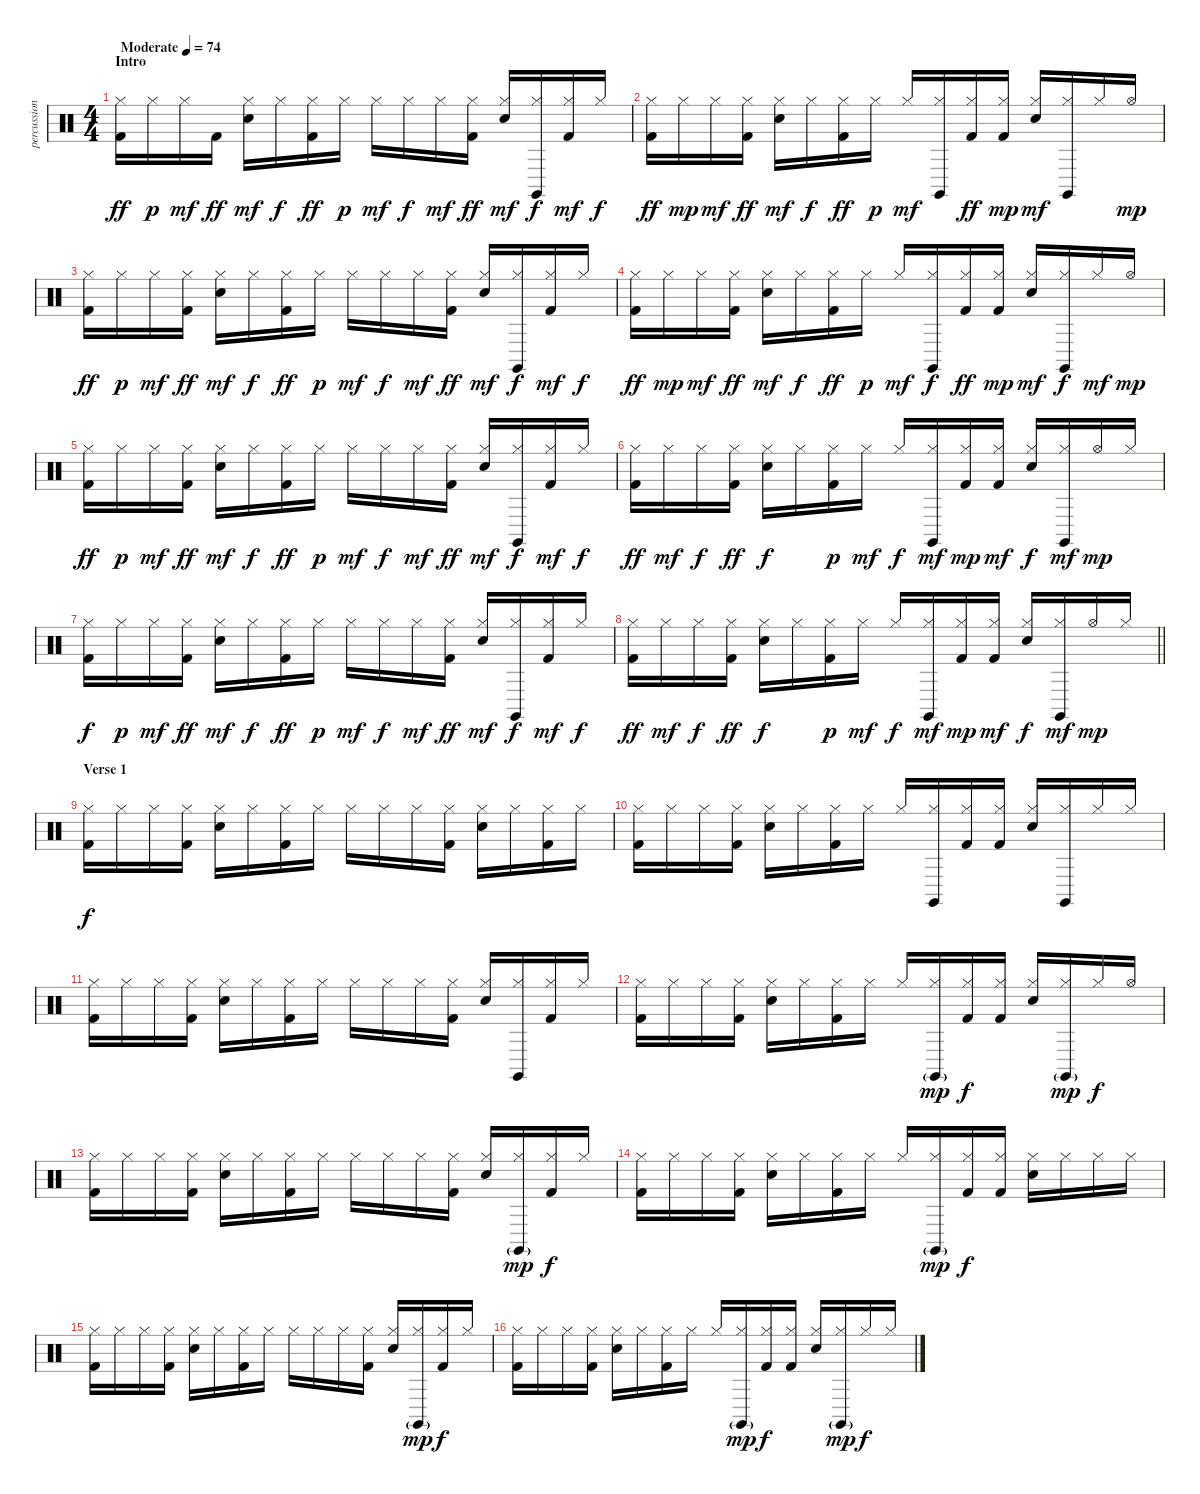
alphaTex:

\track ("percussion" "percussion") {instrument percussion}
\staff {score}
\articulation defaults
\ts (4 4)
\section ("" "Intro")
\tempo (74 "Moderate")
\clef neutral
\ks c
("Hi-Hat (closed)" "Kick (hit) 2").16{dy ff} "Hi-Hat (closed)".16{dy p} "Hi-Hat (closed)".16{dy mf} "Kick (hit) 2".16{dy ff} ("Snare (hit) 2" "Hi-Hat (closed)").16{dy mf} "Hi-Hat (closed)".16{dy f} ("Hi-Hat (closed)" "Kick (hit) 2").16{dy ff} "Hi-Hat (closed)".16{dy p} "Hi-Hat (closed)".16{dy mf} "Hi-Hat (closed)".16{dy f} "Hi-Hat (closed)".16{dy mf} ("Hi-Hat (closed)" "Kick (hit) 2").16{dy ff} ("Snare (hit) 2" "Hi-Hat (closed)").16{dy mf} ("Claves (hit)" "Hi-Hat (closed)").16{dy f} ("Hi-Hat (closed)" "Kick (hit) 2").16{dy mf} "Hi-Hat (closed)".16{dy f} |
("Hi-Hat (closed)" "Kick (hit) 2").16{dy ff} "Hi-Hat (closed)".16{dy mp} "Hi-Hat (closed)".16{dy mf} ("Hi-Hat (closed)" "Kick (hit) 2").16{dy ff} ("Electric Snare (hit)" "Hi-Hat (closed)").16{dy mf} "Hi-Hat (closed)".16{dy f} ("Hi-Hat (closed)" "Kick (hit) 2").16{dy ff} "Hi-Hat (closed)".16{dy p} "Hi-Hat (closed)".16{dy mf} ("Claves (hit)" "Hi-Hat (closed)").16 ("Hi-Hat (closed)" "Kick (hit) 2").16{dy ff} ("Hi-Hat (closed)" "Kick (hit) 2").16{dy mp} ("Electric Snare (hit)" "Hi-Hat (closed)").16{dy mf} ("Claves (hit)" "Hi-Hat (closed)").16 "Hi-Hat (closed)".16 "Hi-Hat (open)".16{dy mp} |
("Hi-Hat (closed)" "Kick (hit) 2").16{dy ff} "Hi-Hat (closed)".16{dy p} "Hi-Hat (closed)".16{dy mf} ("Hi-Hat (closed)" "Kick (hit) 2").16{dy ff} ("Snare (hit) 2" "Hi-Hat (closed)").16{dy mf} "Hi-Hat (closed)".16{dy f} ("Hi-Hat (closed)" "Kick (hit) 2").16{dy ff} "Hi-Hat (closed)".16{dy p} "Hi-Hat (closed)".16{dy mf} "Hi-Hat (closed)".16{dy f} "Hi-Hat (closed)".16{dy mf} ("Hi-Hat (closed)" "Kick (hit) 2").16{dy ff} ("Snare (hit) 2" "Hi-Hat (closed)").16{dy mf} ("Claves (hit)" "Hi-Hat (closed)").16{dy f} ("Hi-Hat (closed)" "Kick (hit) 2").16{dy mf} "Hi-Hat (closed)".16{dy f} |
("Hi-Hat (closed)" "Kick (hit) 2").16{dy ff} "Hi-Hat (closed)".16{dy mp} "Hi-Hat (closed)".16{dy mf} ("Hi-Hat (closed)" "Kick (hit) 2").16{dy ff} ("Snare (hit) 2" "Hi-Hat (closed)").16{dy mf} "Hi-Hat (closed)".16{dy f} ("Hi-Hat (closed)" "Kick (hit) 2").16{dy ff} "Hi-Hat (closed)".16{dy p} "Hi-Hat (closed)".16{dy mf} ("Claves (hit)" "Hi-Hat (closed)").16{dy f} ("Hi-Hat (closed)" "Kick (hit) 2").16{dy ff} ("Hi-Hat (closed)" "Kick (hit) 2").16{dy mp} ("Snare (hit) 2" "Hi-Hat (closed)").16{dy mf} ("Claves (hit)" "Hi-Hat (closed)").16{dy f} "Hi-Hat (closed)".16{dy mf} "Hi-Hat (open)".16{dy mp} |
("Hi-Hat (closed)" "Kick (hit) 2").16{dy ff} "Hi-Hat (closed)".16{dy p} "Hi-Hat (closed)".16{dy mf} ("Hi-Hat (closed)" "Kick (hit) 2").16{dy ff} ("Snare (hit) 2" "Hi-Hat (closed)").16{dy mf} "Hi-Hat (closed)".16{dy f} ("Hi-Hat (closed)" "Kick (hit) 2").16{dy ff} "Hi-Hat (closed)".16{dy p} "Hi-Hat (closed)".16{dy mf} "Hi-Hat (closed)".16{dy f} "Hi-Hat (closed)".16{dy mf} ("Hi-Hat (closed)" "Kick (hit) 2").16{dy ff} ("Snare (hit) 2" "Hi-Hat (closed)").16{dy mf} ("Claves (hit)" "Hi-Hat (closed)").16{dy f} ("Hi-Hat (closed)" "Kick (hit) 2").16{dy mf} "Hi-Hat (closed)".16{dy f} |
("Hi-Hat (closed)" "Kick (hit) 2").16{dy ff} "Hi-Hat (closed)".16{dy mf} "Hi-Hat (closed)".16{dy f} ("Hi-Hat (closed)" "Kick (hit) 2").16{dy ff} ("Snare (hit) 2" "Hi-Hat (closed)").16{dy f} "Hi-Hat (closed)".16 ("Hi-Hat (closed)" "Kick (hit) 2").16{dy p} "Hi-Hat (closed)".16{dy mf} "Hi-Hat (closed)".16{dy f} ("Claves (hit)" "Hi-Hat (closed)").16{dy mf} ("Hi-Hat (closed)" "Kick (hit) 2").16{dy mp} ("Hi-Hat (closed)" "Kick (hit) 2").16{dy mf} ("Snare (hit) 2" "Hi-Hat (closed)").16{dy f} ("Claves (hit)" "Hi-Hat (closed)").16{dy mf} "Hi-Hat (open)".16{dy mp} "Hi-Hat (closed)".16 |
("Hi-Hat (closed)" "Kick (hit) 2").16{dy f} "Hi-Hat (closed)".16{dy p} "Hi-Hat (closed)".16{dy mf} ("Hi-Hat (closed)" "Kick (hit) 2").16{dy ff} ("Snare (hit) 2" "Hi-Hat (closed)").16{dy mf} "Hi-Hat (closed)".16{dy f} ("Hi-Hat (closed)" "Kick (hit) 2").16{dy ff} "Hi-Hat (closed)".16{dy p} "Hi-Hat (closed)".16{dy mf} "Hi-Hat (closed)".16{dy f} "Hi-Hat (closed)".16{dy mf} ("Hi-Hat (closed)" "Kick (hit) 2").16{dy ff} ("Snare (hit) 2" "Hi-Hat (closed)").16{dy mf} ("Claves (hit)" "Hi-Hat (closed)").16{dy f} ("Hi-Hat (closed)" "Kick (hit) 2").16{dy mf} "Hi-Hat (closed)".16{dy f} |
\barLineRight lightlight
("Hi-Hat (closed)" "Kick (hit) 2").16{dy ff} "Hi-Hat (closed)".16{dy mf} "Hi-Hat (closed)".16{dy f} ("Hi-Hat (closed)" "Kick (hit) 2").16{dy ff} ("Snare (hit) 2" "Hi-Hat (closed)").16{dy f} "Hi-Hat (closed)".16 ("Hi-Hat (closed)" "Kick (hit) 2").16{dy p} "Hi-Hat (closed)".16{dy mf} "Hi-Hat (closed)".16{dy f} ("Claves (hit)" "Hi-Hat (closed)").16{dy mf} ("Hi-Hat (closed)" "Kick (hit) 2").16{dy mp} ("Hi-Hat (closed)" "Kick (hit) 2").16{dy mf} ("Snare (hit) 2" "Hi-Hat (closed)").16{dy f} ("Claves (hit)" "Hi-Hat (closed)").16{dy mf} "Hi-Hat (open)".16{dy mp} "Hi-Hat (closed)".16 |
\section ("" "Verse 1")
("Hi-Hat (closed)" "Kick (hit) 2").16{dy f} "Hi-Hat (closed)".16 "Hi-Hat (closed)".16 ("Hi-Hat (closed)" "Kick (hit) 2").16 ("Snare (hit) 2" "Hi-Hat (closed)").16 "Hi-Hat (closed)".16 ("Hi-Hat (closed)" "Kick (hit) 2").16 "Hi-Hat (closed)".16 "Hi-Hat (closed)".16 "Hi-Hat (closed)".16 "Hi-Hat (closed)".16 ("Hi-Hat (closed)" "Kick (hit) 2").16 ("Snare (hit) 2" "Hi-Hat (closed)").16 "Hi-Hat (closed)".16 ("Hi-Hat (closed)" "Kick (hit) 2").16 "Hi-Hat (closed)".16 |
("Hi-Hat (closed)" "Kick (hit) 2").16 "Hi-Hat (closed)".16 "Hi-Hat (closed)".16 ("Hi-Hat (closed)" "Kick (hit) 2").16 ("Snare (hit) 2" "Hi-Hat (closed)").16 "Hi-Hat (closed)".16 ("Hi-Hat (closed)" "Kick (hit) 2").16 "Hi-Hat (closed)".16 "Hi-Hat (closed)".16 ("Claves (hit)" "Hi-Hat (closed)").16 ("Hi-Hat (closed)" "Kick (hit) 2").16 ("Hi-Hat (closed)" "Kick (hit) 2").16 ("Snare (hit) 2" "Hi-Hat (closed)").16 ("Claves (hit)" "Hi-Hat (closed)").16 "Hi-Hat (closed)".16 "Hi-Hat (closed)".16 |
("Hi-Hat (closed)" "Kick (hit) 2").16 "Hi-Hat (closed)".16 "Hi-Hat (closed)".16 ("Hi-Hat (closed)" "Kick (hit) 2").16 ("Snare (hit) 2" "Hi-Hat (closed)").16 "Hi-Hat (closed)".16 ("Hi-Hat (closed)" "Kick (hit) 2").16 "Hi-Hat (closed)".16 "Hi-Hat (closed)".16 "Hi-Hat (closed)".16 "Hi-Hat (closed)".16 ("Hi-Hat (closed)" "Kick (hit) 2").16 ("Snare (hit) 2" "Hi-Hat (closed)").16 ("Claves (hit)" "Hi-Hat (closed)").16 ("Hi-Hat (closed)" "Kick (hit) 2").16 "Hi-Hat (closed)".16 |
("Hi-Hat (closed)" "Kick (hit) 2").16 "Hi-Hat (closed)".16 "Hi-Hat (closed)".16 ("Hi-Hat (closed)" "Kick (hit) 2").16 ("Snare (hit) 2" "Hi-Hat (closed)").16 "Hi-Hat (closed)".16 ("Hi-Hat (closed)" "Kick (hit) 2").16 "Hi-Hat (closed)".16 "Hi-Hat (closed)".16 ("Claves (hit)"{g} "Hi-Hat (closed)").16{dy mp} ("Hi-Hat (closed)" "Kick (hit) 2").16{dy f} ("Hi-Hat (closed)" "Kick (hit) 2").16 ("Snare (hit) 2" "Hi-Hat (closed)").16 ("Claves (hit)"{g} "Hi-Hat (closed)").16{dy mp} "Hi-Hat (closed)".16{dy f} "Hi-Hat (open)".16 |
("Hi-Hat (closed)" "Kick (hit) 2").16 "Hi-Hat (closed)".16 "Hi-Hat (closed)".16 ("Hi-Hat (closed)" "Kick (hit) 2").16 ("Snare (hit) 2" "Hi-Hat (closed)").16 "Hi-Hat (closed)".16 ("Hi-Hat (closed)" "Kick (hit) 2").16 "Hi-Hat (closed)".16 "Hi-Hat (closed)".16 "Hi-Hat (closed)".16 "Hi-Hat (closed)".16 ("Hi-Hat (closed)" "Kick (hit) 2").16 ("Snare (hit) 2" "Hi-Hat (closed)").16 ("Claves (hit)"{g} "Hi-Hat (closed)").16{dy mp} ("Hi-Hat (closed)" "Kick (hit) 2").16{dy f} "Hi-Hat (closed)".16 |
("Hi-Hat (closed)" "Kick (hit) 2").16 "Hi-Hat (closed)".16 "Hi-Hat (closed)".16 ("Hi-Hat (closed)" "Kick (hit) 2").16 ("Snare (hit) 2" "Hi-Hat (closed)").16 "Hi-Hat (closed)".16 ("Hi-Hat (closed)" "Kick (hit) 2").16 "Hi-Hat (closed)".16 "Hi-Hat (closed)".16 ("Claves (hit)"{g} "Hi-Hat (closed)").16{dy mp} ("Hi-Hat (closed)" "Kick (hit) 2").16{dy f} ("Hi-Hat (closed)" "Kick (hit) 2").16 ("Snare (hit) 2" "Hi-Hat (closed)").16 "Hi-Hat (closed)".16 "Hi-Hat (closed)".16 "Hi-Hat (closed)".16 |
("Hi-Hat (closed)" "Kick (hit) 2").16 "Hi-Hat (closed)".16 "Hi-Hat (closed)".16 ("Hi-Hat (closed)" "Kick (hit) 2").16 ("Snare (hit) 2" "Hi-Hat (closed)").16 "Hi-Hat (closed)".16 ("Hi-Hat (closed)" "Kick (hit) 2").16 "Hi-Hat (closed)".16 "Hi-Hat (closed)".16 "Hi-Hat (closed)".16 "Hi-Hat (closed)".16 ("Hi-Hat (closed)" "Kick (hit) 2").16 ("Snare (hit) 2" "Hi-Hat (closed)").16 ("Claves (hit)"{g} "Hi-Hat (closed)").16{dy mp} ("Hi-Hat (closed)" "Kick (hit) 2").16{dy f} "Hi-Hat (closed)".16 |
("Hi-Hat (closed)" "Kick (hit) 2").16 "Hi-Hat (closed)".16 "Hi-Hat (closed)".16 ("Hi-Hat (closed)" "Kick (hit) 2").16 ("Snare (hit) 2" "Hi-Hat (closed)").16 "Hi-Hat (closed)".16 ("Hi-Hat (closed)" "Kick (hit) 2").16 "Hi-Hat (closed)".16 "Hi-Hat (closed)".16 ("Claves (hit)"{g} "Hi-Hat (closed)").16{dy mp} ("Hi-Hat (closed)" "Kick (hit) 2").16{dy f} ("Hi-Hat (closed)" "Kick (hit) 2").16 ("Snare (hit) 2" "Hi-Hat (closed)").16 ("Claves (hit)"{g} "Hi-Hat (closed)").16{dy mp} "Hi-Hat (closed)".16{dy f} "Hi-Hat (closed)".16
